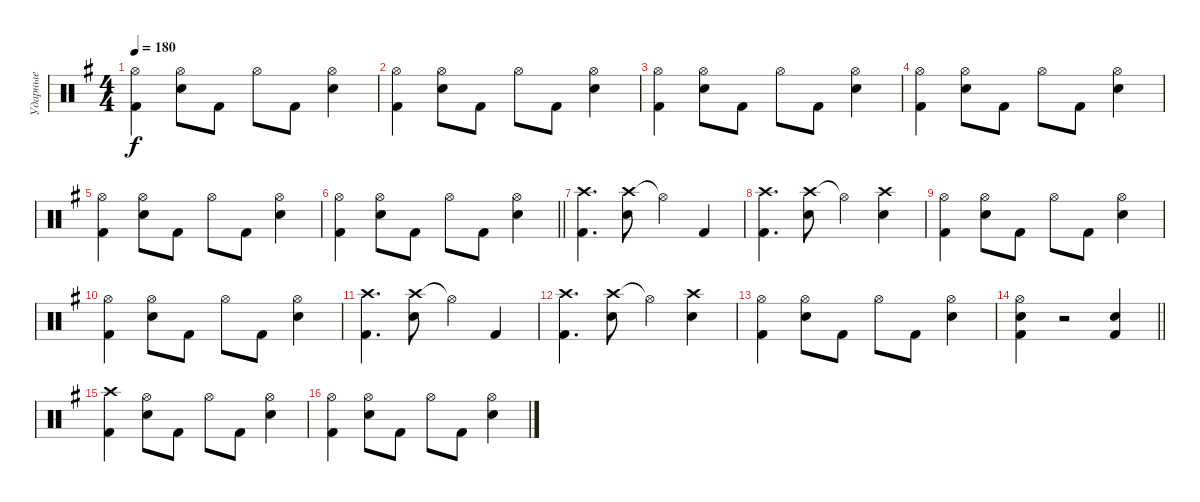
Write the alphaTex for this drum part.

\track ("Ударные" "Ударные") {instrument percussion}
\staff {score}
\articulation defaults
\ts (4 4)
\tempo 180
\clef neutral
\ks g
("Hi-Hat (open)" "Kick (hit) 2").4{dy f} ("Hi-Hat (open)" "Snare (hit) 2").8 "Kick (hit) 2".8 "Hi-Hat (open)".8 "Kick (hit) 2".8 ("Hi-Hat (open)" "Snare (hit) 2").4 |
("Hi-Hat (open)" "Kick (hit) 2").4 ("Hi-Hat (open)" "Snare (hit) 2").8 "Kick (hit) 2".8 "Hi-Hat (open)".8 "Kick (hit) 2".8 ("Hi-Hat (open)" "Snare (hit) 2").4 |
("Hi-Hat (open)" "Kick (hit) 2").4 ("Hi-Hat (open)" "Snare (hit) 2").8 "Kick (hit) 2".8 "Hi-Hat (open)".8 "Kick (hit) 2".8 ("Hi-Hat (open)" "Snare (hit) 2").4 |
("Hi-Hat (open)" "Kick (hit) 2").4 ("Hi-Hat (open)" "Snare (hit) 2").8 "Kick (hit) 2".8 "Hi-Hat (open)".8 "Kick (hit) 2".8 ("Hi-Hat (open)" "Snare (hit) 2").4 |
("Hi-Hat (open)" "Kick (hit) 2").4 ("Hi-Hat (open)" "Snare (hit) 2").8 "Kick (hit) 2".8 "Hi-Hat (open)".8 "Kick (hit) 2".8 ("Hi-Hat (open)" "Snare (hit) 2").4 |
\barLineRight lightlight
("Hi-Hat (open)" "Kick (hit) 2").4 ("Hi-Hat (open)" "Snare (hit) 2").8 "Kick (hit) 2".8 "Hi-Hat (open)".8 "Kick (hit) 2".8 ("Hi-Hat (open)" "Snare (hit) 2").4 |
("Crash high (hit)" "Kick (hit) 2").4{d} ("Crash high (hit)" "Snare (hit) 2").8 "Hi-Hat (open)"{t}.4 "Kick (hit) 2".4 |
("Crash high (hit)" "Kick (hit) 2").4{d} ("Crash high (hit)" "Snare (hit) 2").8 "Hi-Hat (open)"{t}.4 ("Crash high (hit)" "Snare (hit) 2").4 |
("Hi-Hat (open)" "Kick (hit) 2").4 ("Hi-Hat (open)" "Snare (hit) 2").8 "Kick (hit) 2".8 "Hi-Hat (open)".8 "Kick (hit) 2".8 ("Hi-Hat (open)" "Snare (hit) 2").4 |
("Hi-Hat (open)" "Kick (hit) 2").4 ("Hi-Hat (open)" "Snare (hit) 2").8 "Kick (hit) 2".8 "Hi-Hat (open)".8 "Kick (hit) 2".8 ("Hi-Hat (open)" "Snare (hit) 2").4 |
("Crash high (hit)" "Kick (hit) 2").4{d} ("Crash high (hit)" "Snare (hit) 2").8 "Hi-Hat (open)"{t}.4 "Kick (hit) 2".4 |
("Crash high (hit)" "Kick (hit) 2").4{d} ("Crash high (hit)" "Snare (hit) 2").8 "Hi-Hat (open)"{t}.4 ("Crash high (hit)" "Snare (hit) 2").4 |
("Hi-Hat (open)" "Kick (hit) 2").4 ("Hi-Hat (open)" "Snare (hit) 2").8 "Kick (hit) 2".8 "Hi-Hat (open)".8 "Kick (hit) 2".8 ("Hi-Hat (open)" "Snare (hit) 2").4 |
\barLineRight lightlight
("Hi-Hat (open)" "Snare (hit) 2" "Kick (hit) 2").4 r.2 ("Snare (hit) 2" "Kick (hit) 2").4 |
("Crash high (hit)" "Kick (hit) 2").4 ("Hi-Hat (open)" "Snare (hit) 2").8 "Kick (hit) 2".8 "Hi-Hat (open)".8 "Kick (hit) 2".8 ("Hi-Hat (open)" "Snare (hit) 2").4 |
("Hi-Hat (open)" "Kick (hit) 2").4 ("Hi-Hat (open)" "Snare (hit) 2").8 "Kick (hit) 2".8 "Hi-Hat (open)".8 "Kick (hit) 2".8 ("Hi-Hat (open)" "Snare (hit) 2").4
